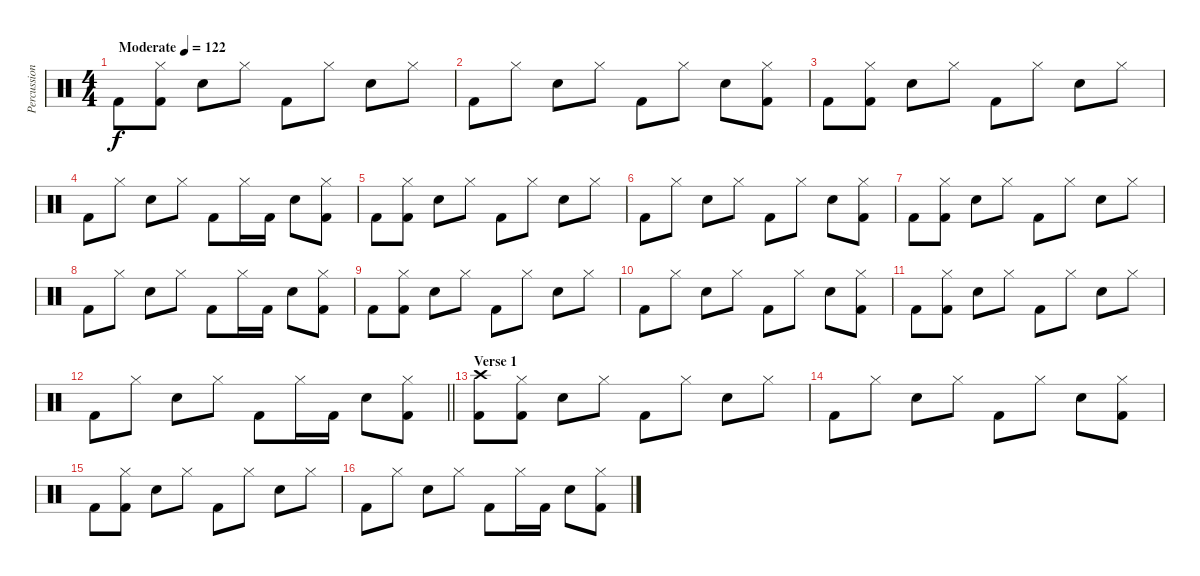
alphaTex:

\track ("Percussion" "Percussion") {instrument percussion}
\staff {score}
\articulation defaults
\ts (4 4)
\tempo (122 "Moderate")
\clef neutral
\ks c "Kick (hit) 2".8{dy f}
("Hi-Hat (closed)" "Kick (hit) 2").8 "Electric Snare (hit)".8 "Hi-Hat (closed)".8 "Kick (hit) 2".8 "Hi-Hat (closed)".8 "Electric Snare (hit)".8 "Hi-Hat (closed)".8 |
"Kick (hit) 2".8 "Hi-Hat (closed)".8 "Electric Snare (hit)".8 "Hi-Hat (closed)".8 "Kick (hit) 2".8 "Hi-Hat (closed)".8 "Electric Snare (hit)".8 ("Hi-Hat (closed)" "Kick (hit) 2").8 |
"Kick (hit) 2".8 ("Hi-Hat (closed)" "Kick (hit) 2").8 "Electric Snare (hit)".8 "Hi-Hat (closed)".8 "Kick (hit) 2".8 "Hi-Hat (closed)".8 "Electric Snare (hit)".8 "Hi-Hat (closed)".8 |
"Kick (hit) 2".8 "Hi-Hat (closed)".8 "Electric Snare (hit)".8 "Hi-Hat (closed)".8 "Kick (hit) 2".8 "Hi-Hat (closed)".16 "Kick (hit) 2".16 "Electric Snare (hit)".8 ("Hi-Hat (closed)" "Kick (hit) 2").8 |
"Kick (hit) 2".8 ("Hi-Hat (closed)" "Kick (hit) 2").8 "Electric Snare (hit)".8 "Hi-Hat (closed)".8 "Kick (hit) 2".8 "Hi-Hat (closed)".8 "Electric Snare (hit)".8 "Hi-Hat (closed)".8 |
"Kick (hit) 2".8 "Hi-Hat (closed)".8 "Electric Snare (hit)".8 "Hi-Hat (closed)".8 "Kick (hit) 2".8 "Hi-Hat (closed)".8 "Electric Snare (hit)".8 ("Hi-Hat (closed)" "Kick (hit) 2").8 |
"Kick (hit) 2".8 ("Hi-Hat (closed)" "Kick (hit) 2").8 "Electric Snare (hit)".8 "Hi-Hat (closed)".8 "Kick (hit) 2".8 "Hi-Hat (closed)".8 "Electric Snare (hit)".8 "Hi-Hat (closed)".8 |
"Kick (hit) 2".8 "Hi-Hat (closed)".8 "Electric Snare (hit)".8 "Hi-Hat (closed)".8 "Kick (hit) 2".8 "Hi-Hat (closed)".16 "Kick (hit) 2".16 "Electric Snare (hit)".8 ("Hi-Hat (closed)" "Kick (hit) 2").8 |
"Kick (hit) 2".8 ("Hi-Hat (closed)" "Kick (hit) 2").8 "Electric Snare (hit)".8 "Hi-Hat (closed)".8 "Kick (hit) 2".8 "Hi-Hat (closed)".8 "Electric Snare (hit)".8 "Hi-Hat (closed)".8 |
"Kick (hit) 2".8 "Hi-Hat (closed)".8 "Electric Snare (hit)".8 "Hi-Hat (closed)".8 "Kick (hit) 2".8 "Hi-Hat (closed)".8 "Electric Snare (hit)".8 ("Hi-Hat (closed)" "Kick (hit) 2").8 |
"Kick (hit) 2".8 ("Hi-Hat (closed)" "Kick (hit) 2").8 "Electric Snare (hit)".8 "Hi-Hat (closed)".8 "Kick (hit) 2".8 "Hi-Hat (closed)".8 "Electric Snare (hit)".8 "Hi-Hat (closed)".8 |
\barLineRight lightlight "Kick (hit) 2".8 "Hi-Hat (closed)".8 "Electric Snare (hit)".8 "Hi-Hat (closed)".8 "Kick (hit) 2".8 "Hi-Hat (closed)".16 "Kick (hit) 2".16 "Electric Snare (hit)".8
("Hi-Hat (closed)" "Kick (hit) 2").8 |
\section ("" "Verse 1")
("Crash high (hit)" "Kick (hit) 2").8 ("Hi-Hat (closed)" "Kick (hit) 2").8 "Electric Snare (hit)".8 "Hi-Hat (closed)".8 "Kick (hit) 2".8 "Hi-Hat (closed)".8 "Electric Snare (hit)".8 "Hi-Hat (closed)".8 |
"Kick (hit) 2".8 "Hi-Hat (closed)".8 "Electric Snare (hit)".8 "Hi-Hat (closed)".8 "Kick (hit) 2".8 "Hi-Hat (closed)".8 "Electric Snare (hit)".8 ("Hi-Hat (closed)" "Kick (hit) 2").8 |
"Kick (hit) 2".8 ("Hi-Hat (closed)" "Kick (hit) 2").8 "Electric Snare (hit)".8 "Hi-Hat (closed)".8 "Kick (hit) 2".8 "Hi-Hat (closed)".8 "Electric Snare (hit)".8 "Hi-Hat (closed)".8 |
"Kick (hit) 2".8 "Hi-Hat (closed)".8 "Electric Snare (hit)".8 "Hi-Hat (closed)".8 "Kick (hit) 2".8 "Hi-Hat (closed)".16 "Kick (hit) 2".16 "Electric Snare (hit)".8 ("Hi-Hat (closed)" "Kick (hit) 2").8
